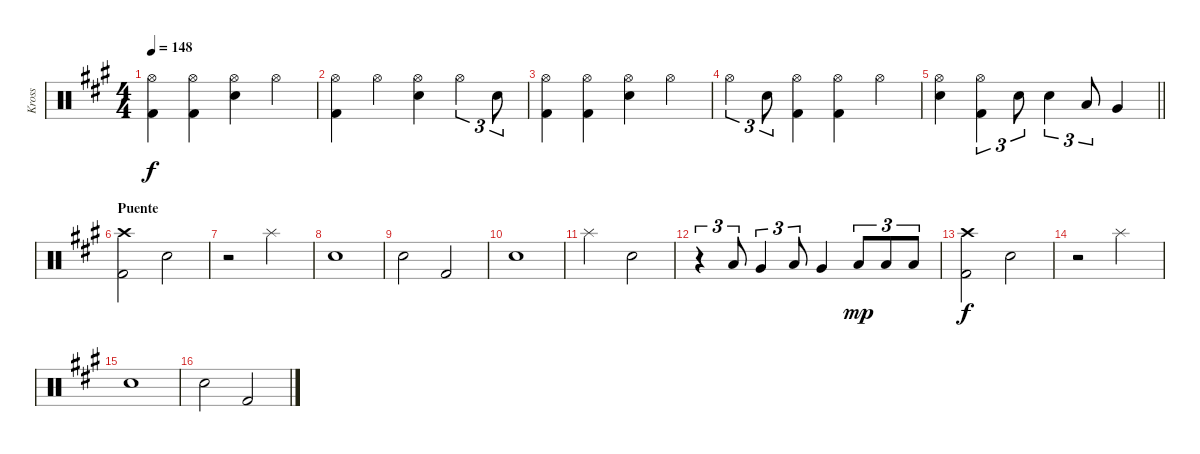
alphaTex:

\track ("Kross" "Kross") {instrument percussion}
\staff {score}
\articulation defaults
\ts (4 4)
\tempo 148
\clef neutral
\ks a
("Hi-Hat (open)" "Kick (hit) 2").4{dy f} ("Hi-Hat (open)" "Kick (hit) 2").4 ("Hi-Hat (open)" "Electric Snare (hit)").4 "Hi-Hat (open)".4 |
("Hi-Hat (open)" "Kick (hit) 2").4 "Hi-Hat (open)".4 ("Hi-Hat (open)" "Electric Snare (hit)").4 "Hi-Hat (open)".4{tu (3 2)} "Electric Snare (hit)".8{tu (3 2)} |
("Hi-Hat (open)" "Kick (hit) 2").4 ("Hi-Hat (open)" "Kick (hit) 2").4 ("Hi-Hat (open)" "Electric Snare (hit)").4 "Hi-Hat (open)".4 |
"Hi-Hat (open)".4{tu (3 2)} "Electric Snare (hit)".8{tu (3 2)} ("Hi-Hat (open)" "Kick (hit) 2").4 ("Hi-Hat (open)" "Kick (hit) 2").4 "Hi-Hat (open)".4 |
\barLineRight lightlight
("Hi-Hat (open)" "Electric Snare (hit)").4 ("Hi-Hat (open)" "Kick (hit) 2").4{tu (3 2)} "Electric Snare (hit)".8{tu (3 2)} "Electric Snare (hit)".4{tu (3 2)} "Low Tom (hit)".8{tu (3 2)} "Very Low Tom (hit)".4 |
\section ("" "Puente")
("Crash high (hit)" "Kick (hit) 2").2 "Electric Snare (hit)".2 |
r.2 "Splash (hit)".2 |
"Electric Snare (hit)".1 |
"Electric Snare (hit)".2 "Kick (hit) 2".2 |
"Electric Snare (hit)".1 |
"Splash (hit)".2 "Electric Snare (hit)".2 |
r.4{tu (3 2)} "Low Tom (hit)".8{tu (3 2)} "Very Low Tom (hit)".4{tu (3 2)} "Low Tom (hit)".8{tu (3 2)} "Very Low Tom (hit)".4 "Low Floor Tom (hit)".8{tu (3 2) dy mp} "Low Floor Tom (hit)".8{tu (3 2)} "Low Floor Tom (hit)".8{tu (3 2)} |
("Crash high (hit)" "Kick (hit) 2").2{dy f} "Electric Snare (hit)".2 |
r.2 "Splash (hit)".2 |
"Electric Snare (hit)".1 |
"Electric Snare (hit)".2 "Kick (hit) 2".2
